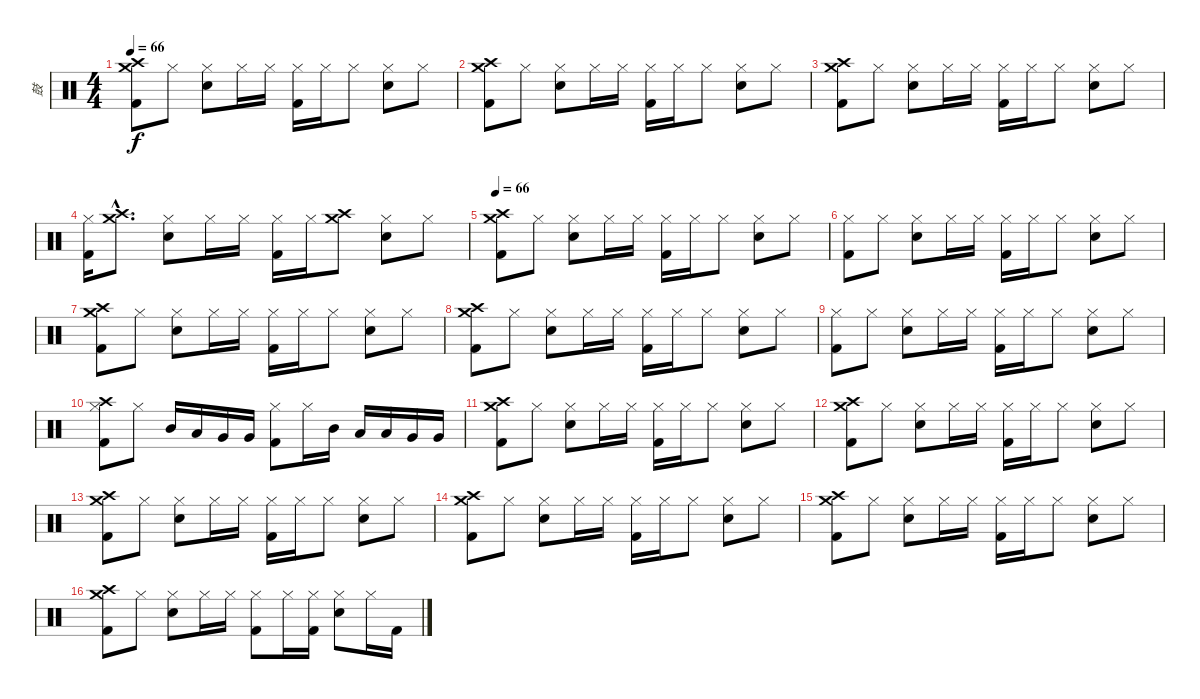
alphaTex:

\track ("鼓" "鼓") {instrument percussion}
\staff {score}
\articulation defaults
\ts (4 4)
\tempo 66
\clef neutral
\ks c
("Crash high (hit)" "Crash medium (hit)" "Kick (hit) 2").8{dy f} "Hi-Hat (closed)".8 ("Hi-Hat (closed)" "Snare (hit) 2").8 "Hi-Hat (closed)".16 "Hi-Hat (closed)".16 ("Hi-Hat (closed)" "Kick (hit) 2").16 "Hi-Hat (closed)".16 "Hi-Hat (closed)".8 ("Hi-Hat (closed)" "Snare (hit) 2").8 "Hi-Hat (closed)".8 |
("Crash high (hit)" "Crash medium (hit)" "Kick (hit) 2").8 "Hi-Hat (closed)".8 ("Hi-Hat (closed)" "Snare (hit) 2").8 "Hi-Hat (closed)".16 "Hi-Hat (closed)".16 ("Hi-Hat (closed)" "Kick (hit) 2").16 "Hi-Hat (closed)".16 "Hi-Hat (closed)".8 ("Hi-Hat (closed)" "Snare (hit) 2").8 "Hi-Hat (closed)".8 |
("Crash high (hit)" "Crash medium (hit)" "Kick (hit) 2").8 "Hi-Hat (closed)".8 ("Hi-Hat (closed)" "Snare (hit) 2").8 "Hi-Hat (closed)".16 "Hi-Hat (closed)".16 ("Hi-Hat (closed)" "Kick (hit) 2").16 "Hi-Hat (closed)".16 "Hi-Hat (closed)".8 ("Hi-Hat (closed)" "Snare (hit) 2").8 "Hi-Hat (closed)".8 |
("Hi-Hat (closed)" "Kick (hit) 2").16 ("Crash high (hit)"{hac} "Crash medium (hit)"{hac}).8{d} ("Hi-Hat (closed)" "Snare (hit) 2").8 "Hi-Hat (closed)".16 "Hi-Hat (closed)".16 ("Hi-Hat (closed)" "Kick (hit) 2").16 "Hi-Hat (closed)".16 ("Crash high (hit)" "Crash medium (hit)").8 ("Hi-Hat (closed)" "Snare (hit) 2").8 "Hi-Hat (closed)".8 |
\tempo 66
("Crash high (hit)" "Crash medium (hit)" "Kick (hit) 2").8 "Hi-Hat (closed)".8 ("Hi-Hat (closed)" "Snare (hit) 2").8 "Hi-Hat (closed)".16 "Hi-Hat (closed)".16 ("Hi-Hat (closed)" "Kick (hit) 2").16 "Hi-Hat (closed)".16 "Hi-Hat (closed)".8 ("Hi-Hat (closed)" "Snare (hit) 2").8 "Hi-Hat (closed)".8 |
("Hi-Hat (closed)" "Kick (hit) 2").8 "Hi-Hat (closed)".8 ("Hi-Hat (closed)" "Snare (hit) 2").8 "Hi-Hat (closed)".16 "Hi-Hat (closed)".16 ("Hi-Hat (closed)" "Kick (hit) 2").16 "Hi-Hat (closed)".16 "Hi-Hat (closed)".8 ("Hi-Hat (closed)" "Snare (hit) 2").8 "Hi-Hat (closed)".8 |
("Crash high (hit)" "Crash medium (hit)" "Kick (hit) 2").8 "Hi-Hat (closed)".8 ("Hi-Hat (closed)" "Snare (hit) 2").8 "Hi-Hat (closed)".16 "Hi-Hat (closed)".16 ("Hi-Hat (closed)" "Kick (hit) 2").16 "Hi-Hat (closed)".16 "Hi-Hat (closed)".8 ("Hi-Hat (closed)" "Snare (hit) 2").8 "Hi-Hat (closed)".8 |
("Crash high (hit)" "Crash medium (hit)" "Kick (hit) 2").8 "Hi-Hat (closed)".8 ("Hi-Hat (closed)" "Snare (hit) 2").8 "Hi-Hat (closed)".16 "Hi-Hat (closed)".16 ("Hi-Hat (closed)" "Kick (hit) 2").16 "Hi-Hat (closed)".16 "Hi-Hat (closed)".8 ("Hi-Hat (closed)" "Snare (hit) 2").8 "Hi-Hat (closed)".8 |
("Hi-Hat (closed)" "Kick (hit) 2").8 "Hi-Hat (closed)".8 ("Hi-Hat (closed)" "Snare (hit) 2").8 "Hi-Hat (closed)".16 "Hi-Hat (closed)".16 ("Hi-Hat (closed)" "Kick (hit) 2").16 "Hi-Hat (closed)".16 "Hi-Hat (closed)".8 ("Hi-Hat (closed)" "Snare (hit) 2").8 "Hi-Hat (closed)".8 |
("Hi-Hat (closed)" "Crash high (hit)" "Kick (hit) 2").8 "Hi-Hat (closed)".8 "Mid Tom (hit)".16 "Low Tom (hit)".16 "Very Low Tom (hit)".16 "Very Low Tom (hit)".16 ("Hi-Hat (closed)" "Kick (hit) 2").8 "Hi-Hat (closed)".16 "Mid Tom (hit)".16 "Low Tom (hit)".16 "Low Tom (hit)".16 "Very Low Tom (hit)".16 "Very Low Tom (hit)".16 |
("Crash high (hit)" "Crash medium (hit)" "Kick (hit) 2").8 "Hi-Hat (closed)".8 ("Hi-Hat (closed)" "Snare (hit) 2").8 "Hi-Hat (closed)".16 "Hi-Hat (closed)".16 ("Hi-Hat (closed)" "Kick (hit) 2").16 "Hi-Hat (closed)".16 "Hi-Hat (closed)".8 ("Hi-Hat (closed)" "Snare (hit) 2").8 "Hi-Hat (closed)".8 |
("Crash high (hit)" "Crash medium (hit)" "Kick (hit) 2").8 "Hi-Hat (closed)".8 ("Hi-Hat (closed)" "Snare (hit) 2").8 "Hi-Hat (closed)".16 "Hi-Hat (closed)".16 ("Hi-Hat (closed)" "Kick (hit) 2").16 "Hi-Hat (closed)".16 "Hi-Hat (closed)".8 ("Hi-Hat (closed)" "Snare (hit) 2").8 "Hi-Hat (closed)".8 |
("Crash high (hit)" "Crash medium (hit)" "Kick (hit) 2").8 "Hi-Hat (closed)".8 ("Hi-Hat (closed)" "Snare (hit) 2").8 "Hi-Hat (closed)".16 "Hi-Hat (closed)".16 ("Hi-Hat (closed)" "Kick (hit) 2").16 "Hi-Hat (closed)".16 "Hi-Hat (closed)".8 ("Hi-Hat (closed)" "Snare (hit) 2").8 "Hi-Hat (closed)".8 |
("Crash high (hit)" "Crash medium (hit)" "Kick (hit) 2").8 "Hi-Hat (closed)".8 ("Hi-Hat (closed)" "Snare (hit) 2").8 "Hi-Hat (closed)".16 "Hi-Hat (closed)".16 ("Hi-Hat (closed)" "Kick (hit) 2").16 "Hi-Hat (closed)".16 "Hi-Hat (closed)".8 ("Hi-Hat (closed)" "Snare (hit) 2").8 "Hi-Hat (closed)".8 |
("Crash high (hit)" "Crash medium (hit)" "Kick (hit) 2").8 "Hi-Hat (closed)".8 ("Hi-Hat (closed)" "Snare (hit) 2").8 "Hi-Hat (closed)".16 "Hi-Hat (closed)".16 ("Hi-Hat (closed)" "Kick (hit) 2").16 "Hi-Hat (closed)".16 "Hi-Hat (closed)".8 ("Hi-Hat (closed)" "Snare (hit) 2").8 "Hi-Hat (closed)".8 |
("Crash high (hit)" "Crash medium (hit)" "Kick (hit) 2").8 "Hi-Hat (closed)".8 ("Hi-Hat (closed)" "Snare (hit) 2").8 "Hi-Hat (closed)".16 "Hi-Hat (closed)".16 ("Hi-Hat (closed)" "Kick (hit) 2").8 "Hi-Hat (closed)".16 ("Hi-Hat (closed)" "Kick (hit) 2").16 ("Hi-Hat (closed)" "Snare (hit) 2").8 "Hi-Hat (closed)".16 "Kick (hit) 2".16
